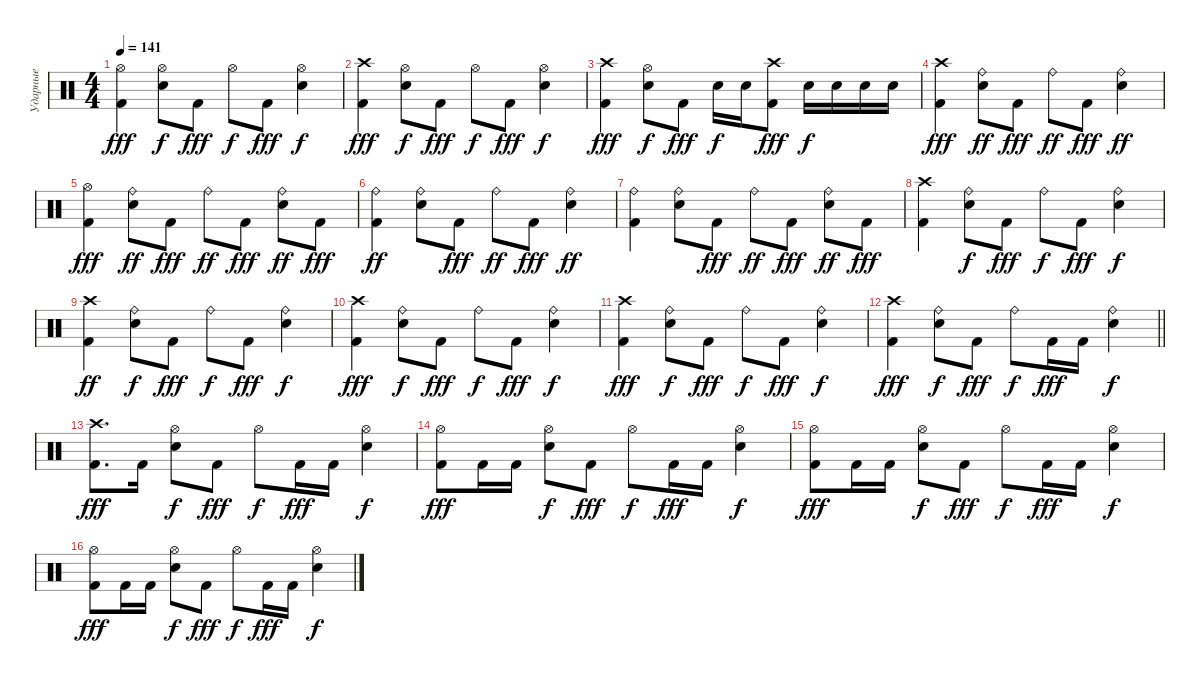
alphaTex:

\track ("Ударные" "Ударные") {instrument percussion}
\staff {score}
\articulation defaults
\ts (4 4)
\tempo 141
\clef neutral
\ks c
("Kick (hit) 2" "Hi-Hat (open)").4{dy fff} ("Snare (hit) 2" "Hi-Hat (open)").8{dy f} "Kick (hit) 2".8{dy fff} "Hi-Hat (open)".8{dy f} "Kick (hit) 2".8{dy fff} ("Snare (hit) 2" "Hi-Hat (open)").4{dy f} |
("Kick (hit) 2" "Crash high (hit)").4{dy fff} ("Snare (hit) 2" "Hi-Hat (open)").8{dy f} "Kick (hit) 2".8{dy fff} "Hi-Hat (open)".8{dy f} "Kick (hit) 2".8{dy fff} ("Snare (hit) 2" "Hi-Hat (open)").4{dy f} |
("Kick (hit) 2" "Crash high (hit)").4{dy fff} ("Snare (hit) 2" "Hi-Hat (open)").8{dy f} "Kick (hit) 2".8{dy fff} "Snare (hit) 2".16{dy f} "Snare (hit) 2".16 ("Kick (hit) 2" "Crash high (hit)").8{dy fff} "Snare (hit) 2".16{dy f} "Snare (hit) 2".16 "Snare (hit) 2".16 "Snare (hit) 2".16 |
("Kick (hit) 2" "Crash high (hit)").4{dy fff} ("Snare (hit) 2" "Ride (bell)").8{dy ff} "Kick (hit) 2".8{dy fff} "Ride (bell)".8{dy ff} "Kick (hit) 2".8{dy fff} ("Snare (hit) 2" "Ride (bell)").4{dy ff} |
("Kick (hit) 2" "Hi-Hat (open)").4{dy fff} ("Snare (hit) 2" "Ride (bell)").8{dy ff} "Kick (hit) 2".8{dy fff} "Ride (bell)".8{dy ff} "Kick (hit) 2".8{dy fff} ("Snare (hit) 2" "Ride (bell)").8{dy ff} "Kick (hit) 2".8{dy fff} |
("Kick (hit) 2" "Ride (bell)").4{dy ff} ("Snare (hit) 2" "Ride (bell)").8 "Kick (hit) 2".8{dy fff} "Ride (bell)".8{dy ff} "Kick (hit) 2".8{dy fff} ("Snare (hit) 2" "Ride (bell)").4{dy ff} |
("Kick (hit) 2" "Ride (bell)").4 ("Snare (hit) 2" "Ride (bell)").8 "Kick (hit) 2".8{dy fff} "Ride (bell)".8{dy ff} "Kick (hit) 2".8{dy fff} ("Snare (hit) 2" "Ride (bell)").8{dy ff} "Kick (hit) 2".8{dy fff} |
("Kick (hit) 2" "Crash high (hit)").4 ("Snare (hit) 2" "Ride (bell)").8{dy f} "Kick (hit) 2".8{dy fff} "Ride (bell)".8{dy f} "Kick (hit) 2".8{dy fff} ("Snare (hit) 2" "Ride (bell)").4{dy f} |
("Kick (hit) 2" "Crash high (hit)").4{dy ff} ("Snare (hit) 2" "Ride (bell)").8{dy f} "Kick (hit) 2".8{dy fff} "Ride (bell)".8{dy f} "Kick (hit) 2".8{dy fff} ("Snare (hit) 2" "Ride (bell)").4{dy f} |
("Kick (hit) 2" "Crash high (hit)").4{dy fff} ("Snare (hit) 2" "Ride (bell)").8{dy f} "Kick (hit) 2".8{dy fff} "Ride (bell)".8{dy f} "Kick (hit) 2".8{dy fff} ("Snare (hit) 2" "Ride (bell)").4{dy f} |
("Kick (hit) 2" "Crash high (hit)").4{dy fff} ("Snare (hit) 2" "Ride (bell)").8{dy f} "Kick (hit) 2".8{dy fff} "Ride (bell)".8{dy f} "Kick (hit) 2".8{dy fff} ("Snare (hit) 2" "Ride (bell)").4{dy f} |
\barLineRight lightlight
("Kick (hit) 2" "Crash high (hit)").4{dy fff} ("Snare (hit) 2" "Ride (bell)").8{dy f} "Kick (hit) 2".8{dy fff} "Ride (bell)".8{dy f} "Kick (hit) 2".16{dy fff} "Kick (hit) 2".16 ("Snare (hit) 2" "Ride (bell)").4{dy f} |
("Kick (hit) 2" "Crash high (hit)").8{d dy fff} "Kick (hit) 2".16 ("Snare (hit) 2" "Hi-Hat (open)").8{dy f} "Kick (hit) 2".8{dy fff} "Hi-Hat (open)".8{dy f} "Kick (hit) 2".16{dy fff} "Kick (hit) 2".16 ("Snare (hit) 2" "Hi-Hat (open)").4{dy f} |
("Kick (hit) 2" "Hi-Hat (open)").8{dy fff} "Kick (hit) 2".16 "Kick (hit) 2".16 ("Snare (hit) 2" "Hi-Hat (open)").8{dy f} "Kick (hit) 2".8{dy fff} "Hi-Hat (open)".8{dy f} "Kick (hit) 2".16{dy fff} "Kick (hit) 2".16 ("Snare (hit) 2" "Hi-Hat (open)").4{dy f} |
("Kick (hit) 2" "Hi-Hat (open)").8{dy fff} "Kick (hit) 2".16 "Kick (hit) 2".16 ("Snare (hit) 2" "Hi-Hat (open)").8{dy f} "Kick (hit) 2".8{dy fff} "Hi-Hat (open)".8{dy f} "Kick (hit) 2".16{dy fff} "Kick (hit) 2".16 ("Snare (hit) 2" "Hi-Hat (open)").4{dy f} |
("Kick (hit) 2" "Hi-Hat (open)").8{dy fff} "Kick (hit) 2".16 "Kick (hit) 2".16 ("Snare (hit) 2" "Hi-Hat (open)").8{dy f} "Kick (hit) 2".8{dy fff} "Hi-Hat (open)".8{dy f} "Kick (hit) 2".16{dy fff} "Kick (hit) 2".16 ("Snare (hit) 2" "Hi-Hat (open)").4{dy f}
